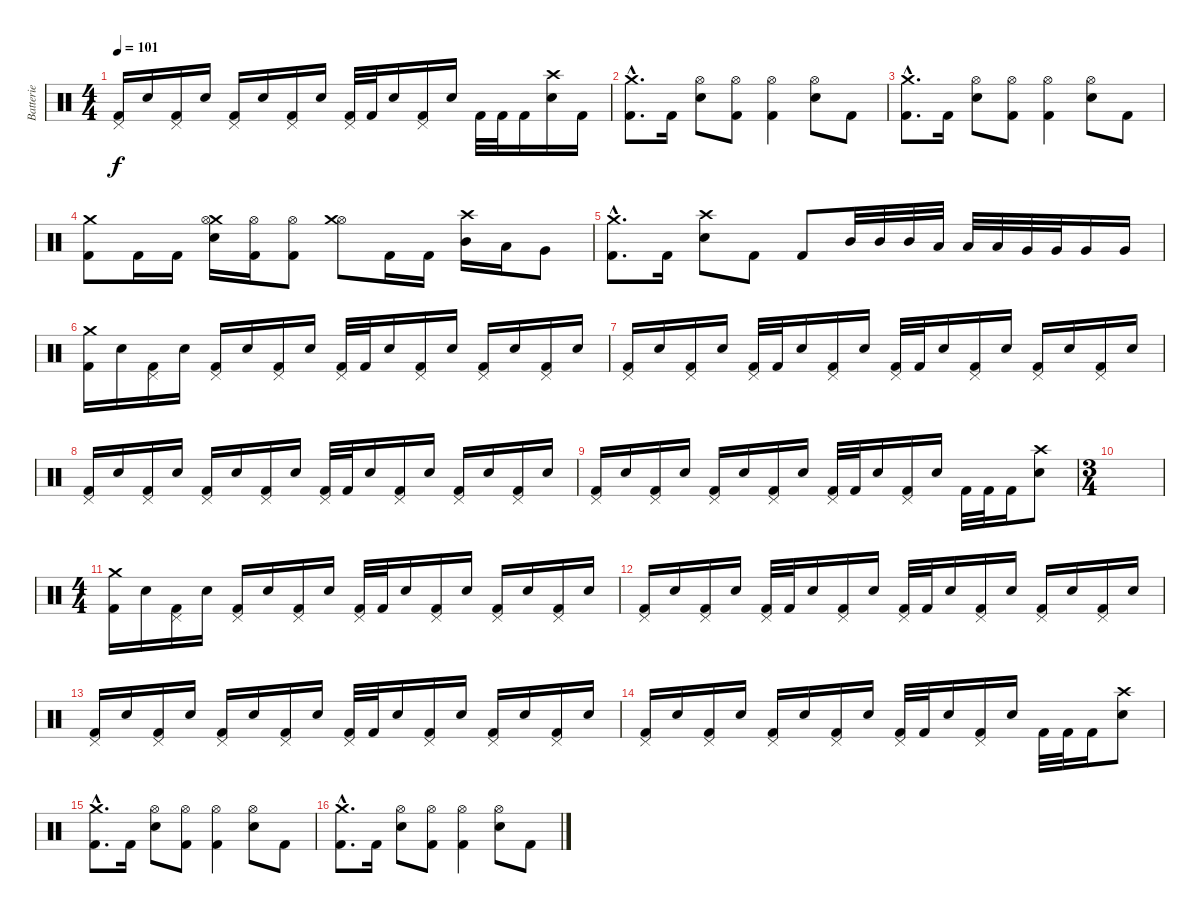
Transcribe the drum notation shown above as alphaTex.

\track ("Batterie" "Batterie") {instrument percussion}
\staff {score}
\articulation defaults
\ts (4 4)
\tempo 101
\clef neutral
\ks c
("Pedal Hi-Hat (hit)" "Kick (hit) 2").16{dy f} "Electric Snare (hit)".16 ("Pedal Hi-Hat (hit)" "Kick (hit) 2").16 "Electric Snare (hit)".16 ("Pedal Hi-Hat (hit)" "Kick (hit) 2").16 "Electric Snare (hit)".16 ("Pedal Hi-Hat (hit)" "Kick (hit) 2").16 "Electric Snare (hit)".16 ("Pedal Hi-Hat (hit)" "Kick (hit) 2").32 "Kick (hit) 2".32 "Electric Snare (hit)".16 ("Pedal Hi-Hat (hit)" "Kick (hit) 2").16 "Electric Snare (hit)".16 "Kick (hit) 2".32 "Kick (hit) 2".32 "Kick (hit) 2".16 ("Crash high (hit)" "Electric Snare (hit)").16 "Kick (hit) 2".16 |
("Crash medium (hit)"{hac} "Kick (hit) 2"{hac}).8{d} "Kick (hit) 2".16 ("Hi-Hat (open)" "Electric Snare (hit)").8 ("Hi-Hat (open)" "Kick (hit) 2").8 ("Hi-Hat (open)" "Kick (hit) 2").4 ("Hi-Hat (open)" "Electric Snare (hit)").8 "Kick (hit) 2".8 |
("Crash medium (hit)"{hac} "Kick (hit) 2"{hac}).8{d} "Kick (hit) 2".16 ("Hi-Hat (open)" "Electric Snare (hit)").8 ("Hi-Hat (open)" "Kick (hit) 2").8 ("Hi-Hat (open)" "Kick (hit) 2").4 ("Hi-Hat (open)" "Electric Snare (hit)").8 "Kick (hit) 2".8 |
("Crash medium (hit)" "Kick (hit) 2").8 "Kick (hit) 2".16 "Kick (hit) 2".16 ("Crash medium (hit)" "Hi-Hat (open)" "Electric Snare (hit)").16 ("Hi-Hat (open)" "Kick (hit) 2").16 ("Hi-Hat (open)" "Kick (hit) 2").8 ("Hi-Hat (open)" "Crash medium (hit)").8 "Kick (hit) 2".16 "Kick (hit) 2".16 ("Crash high (hit)" "Mid Tom (hit)").16 "Low Tom (hit)".16 "Very Low Tom (hit)".8 |
("Crash medium (hit)"{hac} "Kick (hit) 2"{hac}).8{d} "Kick (hit) 2".16 ("Crash high (hit)" "Electric Snare (hit)").8 "Kick (hit) 2".8 "Kick (hit) 2".8 "Mid Tom (hit)".32 "Mid Tom (hit)".32 "Mid Tom (hit)".32 "Low Tom (hit)".32 "Low Tom (hit)".32 "Low Tom (hit)".32 "Very Low Tom (hit)".32 "Very Low Tom (hit)".32 "Very Low Tom (hit)".16 "Very Low Tom (hit)".16 |
("Crash medium (hit)" "Kick (hit) 2").16 "Electric Snare (hit)".16 ("Pedal Hi-Hat (hit)" "Kick (hit) 2").16 "Electric Snare (hit)".16 ("Pedal Hi-Hat (hit)" "Kick (hit) 2").16 "Electric Snare (hit)".16 ("Pedal Hi-Hat (hit)" "Kick (hit) 2").16 "Electric Snare (hit)".16 ("Pedal Hi-Hat (hit)" "Kick (hit) 2").32 "Kick (hit) 2".32 "Electric Snare (hit)".16 ("Pedal Hi-Hat (hit)" "Kick (hit) 2").16 "Electric Snare (hit)".16 ("Pedal Hi-Hat (hit)" "Kick (hit) 2").16 "Electric Snare (hit)".16 ("Pedal Hi-Hat (hit)" "Kick (hit) 2").16 "Electric Snare (hit)".16 |
("Pedal Hi-Hat (hit)" "Kick (hit) 2").16 "Electric Snare (hit)".16 ("Pedal Hi-Hat (hit)" "Kick (hit) 2").16 "Electric Snare (hit)".16 ("Pedal Hi-Hat (hit)" "Kick (hit) 2").32 "Kick (hit) 2".32 "Electric Snare (hit)".16 ("Pedal Hi-Hat (hit)" "Kick (hit) 2").16 "Electric Snare (hit)".16 ("Pedal Hi-Hat (hit)" "Kick (hit) 2").32 "Kick (hit) 2".32 "Electric Snare (hit)".16 ("Pedal Hi-Hat (hit)" "Kick (hit) 2").16 "Electric Snare (hit)".16 ("Pedal Hi-Hat (hit)" "Kick (hit) 2").16 "Electric Snare (hit)".16 ("Pedal Hi-Hat (hit)" "Kick (hit) 2").16 "Electric Snare (hit)".16 |
("Pedal Hi-Hat (hit)" "Kick (hit) 2").16 "Electric Snare (hit)".16 ("Pedal Hi-Hat (hit)" "Kick (hit) 2").16 "Electric Snare (hit)".16 ("Pedal Hi-Hat (hit)" "Kick (hit) 2").16 "Electric Snare (hit)".16 ("Pedal Hi-Hat (hit)" "Kick (hit) 2").16 "Electric Snare (hit)".16 ("Pedal Hi-Hat (hit)" "Kick (hit) 2").32 "Kick (hit) 2".32 "Electric Snare (hit)".16 ("Pedal Hi-Hat (hit)" "Kick (hit) 2").16 "Electric Snare (hit)".16 ("Pedal Hi-Hat (hit)" "Kick (hit) 2").16 "Electric Snare (hit)".16 ("Pedal Hi-Hat (hit)" "Kick (hit) 2").16 "Electric Snare (hit)".16 |
("Pedal Hi-Hat (hit)" "Kick (hit) 2").16 "Electric Snare (hit)".16 ("Pedal Hi-Hat (hit)" "Kick (hit) 2").16 "Electric Snare (hit)".16 ("Pedal Hi-Hat (hit)" "Kick (hit) 2").16 "Electric Snare (hit)".16 ("Pedal Hi-Hat (hit)" "Kick (hit) 2").16 "Electric Snare (hit)".16 ("Pedal Hi-Hat (hit)" "Kick (hit) 2").32 "Kick (hit) 2".32 "Electric Snare (hit)".16 ("Pedal Hi-Hat (hit)" "Kick (hit) 2").16 "Electric Snare (hit)".16 "Kick (hit) 2".32 "Kick (hit) 2".32 "Kick (hit) 2".16 ("Crash high (hit)" "Electric Snare (hit)").8 |
\ts (3 4)
|
\ts (4 4)
("Crash medium (hit)" "Kick (hit) 2").16 "Electric Snare (hit)".16 ("Pedal Hi-Hat (hit)" "Kick (hit) 2").16 "Electric Snare (hit)".16 ("Pedal Hi-Hat (hit)" "Kick (hit) 2").16 "Electric Snare (hit)".16 ("Pedal Hi-Hat (hit)" "Kick (hit) 2").16 "Electric Snare (hit)".16 ("Pedal Hi-Hat (hit)" "Kick (hit) 2").32 "Kick (hit) 2".32 "Electric Snare (hit)".16 ("Pedal Hi-Hat (hit)" "Kick (hit) 2").16 "Electric Snare (hit)".16 ("Pedal Hi-Hat (hit)" "Kick (hit) 2").16 "Electric Snare (hit)".16 ("Pedal Hi-Hat (hit)" "Kick (hit) 2").16 "Electric Snare (hit)".16 |
("Pedal Hi-Hat (hit)" "Kick (hit) 2").16 "Electric Snare (hit)".16 ("Pedal Hi-Hat (hit)" "Kick (hit) 2").16 "Electric Snare (hit)".16 ("Pedal Hi-Hat (hit)" "Kick (hit) 2").32 "Kick (hit) 2".32 "Electric Snare (hit)".16 ("Pedal Hi-Hat (hit)" "Kick (hit) 2").16 "Electric Snare (hit)".16 ("Pedal Hi-Hat (hit)" "Kick (hit) 2").32 "Kick (hit) 2".32 "Electric Snare (hit)".16 ("Pedal Hi-Hat (hit)" "Kick (hit) 2").16 "Electric Snare (hit)".16 ("Pedal Hi-Hat (hit)" "Kick (hit) 2").16 "Electric Snare (hit)".16 ("Pedal Hi-Hat (hit)" "Kick (hit) 2").16 "Electric Snare (hit)".16 |
("Pedal Hi-Hat (hit)" "Kick (hit) 2").16 "Electric Snare (hit)".16 ("Pedal Hi-Hat (hit)" "Kick (hit) 2").16 "Electric Snare (hit)".16 ("Pedal Hi-Hat (hit)" "Kick (hit) 2").16 "Electric Snare (hit)".16 ("Pedal Hi-Hat (hit)" "Kick (hit) 2").16 "Electric Snare (hit)".16 ("Pedal Hi-Hat (hit)" "Kick (hit) 2").32 "Kick (hit) 2".32 "Electric Snare (hit)".16 ("Pedal Hi-Hat (hit)" "Kick (hit) 2").16 "Electric Snare (hit)".16 ("Pedal Hi-Hat (hit)" "Kick (hit) 2").16 "Electric Snare (hit)".16 ("Pedal Hi-Hat (hit)" "Kick (hit) 2").16 "Electric Snare (hit)".16 |
("Pedal Hi-Hat (hit)" "Kick (hit) 2").16 "Electric Snare (hit)".16 ("Pedal Hi-Hat (hit)" "Kick (hit) 2").16 "Electric Snare (hit)".16 ("Pedal Hi-Hat (hit)" "Kick (hit) 2").16 "Electric Snare (hit)".16 ("Pedal Hi-Hat (hit)" "Kick (hit) 2").16 "Electric Snare (hit)".16 ("Pedal Hi-Hat (hit)" "Kick (hit) 2").32 "Kick (hit) 2".32 "Electric Snare (hit)".16 ("Pedal Hi-Hat (hit)" "Kick (hit) 2").16 "Electric Snare (hit)".16 "Kick (hit) 2".32 "Kick (hit) 2".32 "Kick (hit) 2".16 ("Crash high (hit)" "Electric Snare (hit)").8 |
("Crash medium (hit)"{hac} "Kick (hit) 2"{hac}).8{d} "Kick (hit) 2".16 ("Hi-Hat (open)" "Electric Snare (hit)").8 ("Hi-Hat (open)" "Kick (hit) 2").8 ("Hi-Hat (open)" "Kick (hit) 2").4 ("Hi-Hat (open)" "Electric Snare (hit)").8 "Kick (hit) 2".8 |
("Crash medium (hit)"{hac} "Kick (hit) 2"{hac}).8{d} "Kick (hit) 2".16 ("Hi-Hat (open)" "Electric Snare (hit)").8 ("Hi-Hat (open)" "Kick (hit) 2").8 ("Hi-Hat (open)" "Kick (hit) 2").4 ("Hi-Hat (open)" "Electric Snare (hit)").8 "Kick (hit) 2".8
